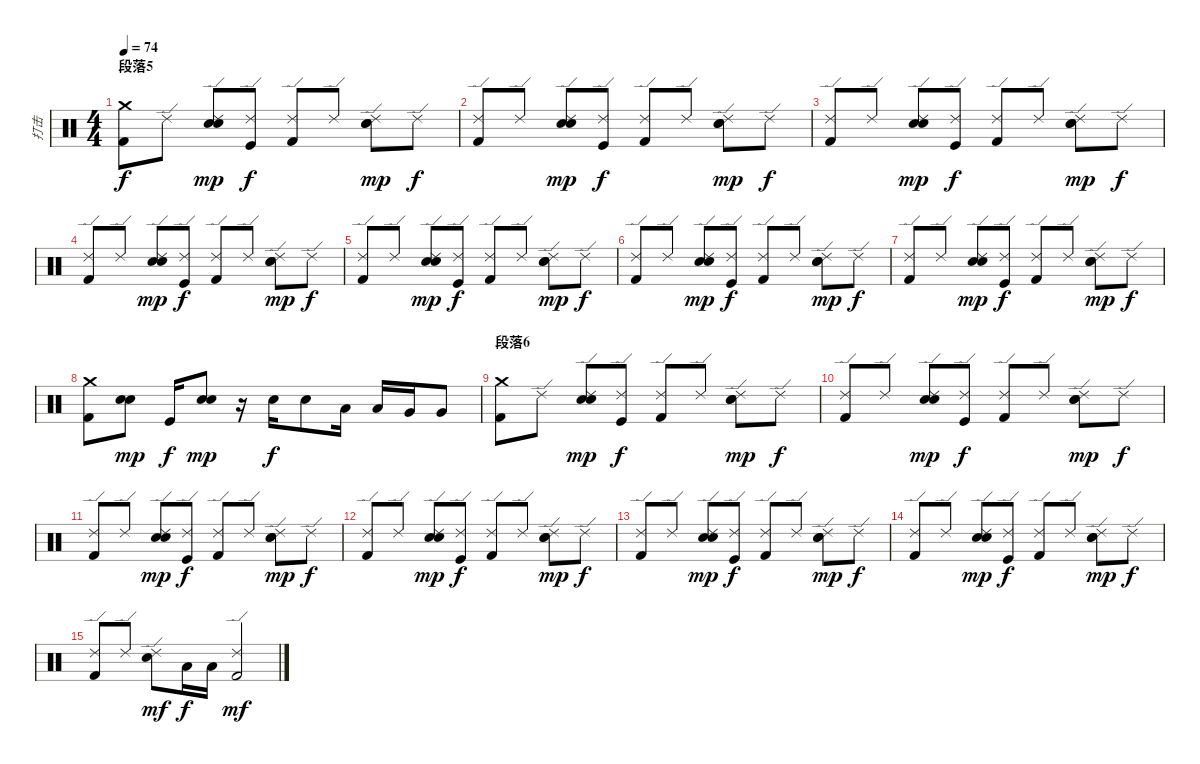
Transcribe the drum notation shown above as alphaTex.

\track ("打击" "打击") {instrument percussion}
\staff {score}
\articulation defaults
\ts (4 4)
\section ("" "段落5")
\tempo 74
\clef neutral
\ks c
("Crash medium (hit)" "Kick (hit) 2").8{dy f} "Ride (edge) 2".8 ("Ride (edge) 2" "Snare (hit) 2" "Electric Snare (hit)").8{dy mp} ("Ride (edge) 2" "Kick (hit)").8{dy f} ("Ride (edge) 2" "Kick (hit) 2").8 "Ride (edge) 2".8 ("Ride (edge) 2" "Snare (hit) 2" "Electric Snare (hit)").8{dy mp} "Ride (edge) 2".8{dy f} |
("Ride (edge) 2" "Kick (hit) 2").8 "Ride (edge) 2".8 ("Ride (edge) 2" "Snare (hit) 2" "Electric Snare (hit)").8{dy mp} ("Ride (edge) 2" "Kick (hit)").8{dy f} ("Ride (edge) 2" "Kick (hit) 2").8 "Ride (edge) 2".8 ("Ride (edge) 2" "Snare (hit) 2" "Electric Snare (hit)").8{dy mp} "Ride (edge) 2".8{dy f} |
("Ride (edge) 2" "Kick (hit) 2").8 "Ride (edge) 2".8 ("Ride (edge) 2" "Snare (hit) 2" "Electric Snare (hit)").8{dy mp} ("Ride (edge) 2" "Kick (hit)").8{dy f} ("Ride (edge) 2" "Kick (hit) 2").8 "Ride (edge) 2".8 ("Ride (edge) 2" "Snare (hit) 2" "Electric Snare (hit)").8{dy mp} "Ride (edge) 2".8{dy f} |
("Ride (edge) 2" "Kick (hit) 2").8 "Ride (edge) 2".8 ("Ride (edge) 2" "Snare (hit) 2" "Electric Snare (hit)").8{dy mp} ("Ride (edge) 2" "Kick (hit)").8{dy f} ("Ride (edge) 2" "Kick (hit) 2").8 "Ride (edge) 2".8 ("Ride (edge) 2" "Snare (hit) 2" "Electric Snare (hit)").8{dy mp} "Ride (edge) 2".8{dy f} |
("Ride (edge) 2" "Kick (hit) 2").8 "Ride (edge) 2".8 ("Ride (edge) 2" "Snare (hit) 2" "Electric Snare (hit)").8{dy mp} ("Ride (edge) 2" "Kick (hit)").8{dy f} ("Ride (edge) 2" "Kick (hit) 2").8 "Ride (edge) 2".8 ("Ride (edge) 2" "Snare (hit) 2" "Electric Snare (hit)").8{dy mp} "Ride (edge) 2".8{dy f} |
("Ride (edge) 2" "Kick (hit) 2").8 "Ride (edge) 2".8 ("Ride (edge) 2" "Snare (hit) 2" "Electric Snare (hit)").8{dy mp} ("Ride (edge) 2" "Kick (hit)").8{dy f} ("Ride (edge) 2" "Kick (hit) 2").8 "Ride (edge) 2".8 ("Ride (edge) 2" "Snare (hit) 2" "Electric Snare (hit)").8{dy mp} "Ride (edge) 2".8{dy f} |
("Ride (edge) 2" "Kick (hit) 2").8 "Ride (edge) 2".8 ("Ride (edge) 2" "Snare (hit) 2" "Electric Snare (hit)").8{dy mp} ("Ride (edge) 2" "Kick (hit)").8{dy f} ("Ride (edge) 2" "Kick (hit) 2").8 "Ride (edge) 2".8 ("Ride (edge) 2" "Snare (hit) 2" "Electric Snare (hit)").8{dy mp} "Ride (edge) 2".8{dy f} |
("Crash medium (hit)" "Kick (hit) 2").8 ("Snare (hit) 2" "Electric Snare (hit)").8{dy mp} "Kick (hit)".16{dy f} ("Snare (hit) 2" "Electric Snare (hit)").8{dy mp} r.16 "Electric Snare (hit)".16{dy f} "Electric Snare (hit)".8 "Low Tom (hit)".16 "Low Tom (hit)".16 "Very Low Tom (hit)".16 "Very Low Tom (hit)".8 |
\section ("" "段落6")
("Crash medium (hit)" "Kick (hit) 2").8 "Ride (edge) 2".8 ("Ride (edge) 2" "Snare (hit) 2" "Electric Snare (hit)").8{dy mp} ("Ride (edge) 2" "Kick (hit)").8{dy f} ("Ride (edge) 2" "Kick (hit) 2").8 "Ride (edge) 2".8 ("Ride (edge) 2" "Snare (hit) 2" "Electric Snare (hit)").8{dy mp} "Ride (edge) 2".8{dy f} |
("Ride (edge) 2" "Kick (hit) 2").8 "Ride (edge) 2".8 ("Ride (edge) 2" "Snare (hit) 2" "Electric Snare (hit)").8{dy mp} ("Ride (edge) 2" "Kick (hit)").8{dy f} ("Ride (edge) 2" "Kick (hit) 2").8 "Ride (edge) 2".8 ("Ride (edge) 2" "Snare (hit) 2" "Electric Snare (hit)").8{dy mp} "Ride (edge) 2".8{dy f} |
("Ride (edge) 2" "Kick (hit) 2").8 "Ride (edge) 2".8 ("Ride (edge) 2" "Snare (hit) 2" "Electric Snare (hit)").8{dy mp} ("Ride (edge) 2" "Kick (hit)").8{dy f} ("Ride (edge) 2" "Kick (hit) 2").8 "Ride (edge) 2".8 ("Ride (edge) 2" "Snare (hit) 2" "Electric Snare (hit)").8{dy mp} "Ride (edge) 2".8{dy f} |
("Ride (edge) 2" "Kick (hit) 2").8 "Ride (edge) 2".8 ("Ride (edge) 2" "Snare (hit) 2" "Electric Snare (hit)").8{dy mp} ("Ride (edge) 2" "Kick (hit)").8{dy f} ("Ride (edge) 2" "Kick (hit) 2").8 "Ride (edge) 2".8 ("Ride (edge) 2" "Snare (hit) 2" "Electric Snare (hit)").8{dy mp} "Ride (edge) 2".8{dy f} |
("Ride (edge) 2" "Kick (hit) 2").8 "Ride (edge) 2".8 ("Ride (edge) 2" "Snare (hit) 2" "Electric Snare (hit)").8{dy mp} ("Ride (edge) 2" "Kick (hit)").8{dy f} ("Ride (edge) 2" "Kick (hit) 2").8 "Ride (edge) 2".8 ("Ride (edge) 2" "Snare (hit) 2" "Electric Snare (hit)").8{dy mp} "Ride (edge) 2".8{dy f} |
("Ride (edge) 2" "Kick (hit) 2").8 "Ride (edge) 2".8 ("Ride (edge) 2" "Snare (hit) 2" "Electric Snare (hit)").8{dy mp} ("Ride (edge) 2" "Kick (hit)").8{dy f} ("Ride (edge) 2" "Kick (hit) 2").8 "Ride (edge) 2".8 ("Ride (edge) 2" "Snare (hit) 2" "Electric Snare (hit)").8{dy mp} "Ride (edge) 2".8{dy f} |
("Ride (edge) 2" "Kick (hit) 2").8 "Ride (edge) 2".8 ("Ride (edge) 2" "Electric Snare (hit)").8{dy mf} "Low Tom (hit)".16{dy f} "Low Tom (hit)".16 ("Ride (edge) 2" "Kick (hit) 2").2{dy mf}
